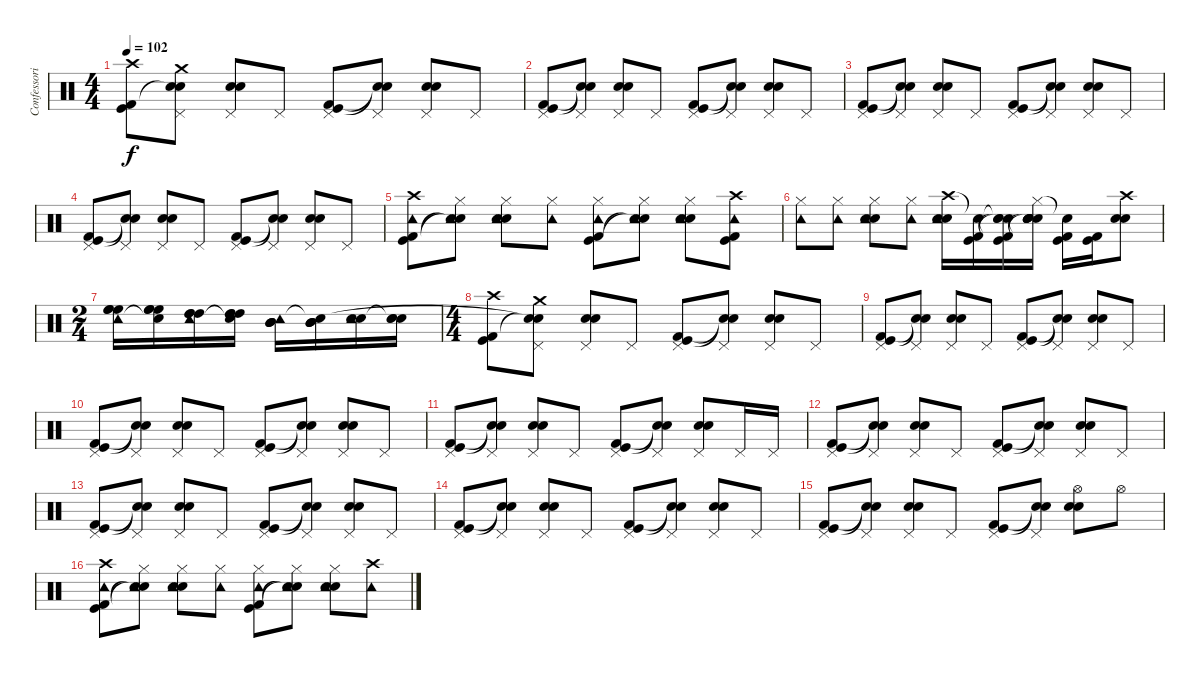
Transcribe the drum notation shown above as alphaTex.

\track ("Confessori" "Confessori") {instrument percussion}
\staff {score}
\articulation defaults
\ts (4 4)
\tempo 102
\clef neutral
\ks c
("Crash high (hit)" "Kick (hit)" "Kick (hit) 2").8{dy f} ("Pedal Hi-Hat (hit)" "Crash medium (hit)" "Snare (hit)"{t} "Snare (hit)").8 ("Pedal Hi-Hat (hit)" "Electric Snare (hit)" "Snare (hit) 2").8 "Pedal Hi-Hat (hit)".8 ("Pedal Hi-Hat (hit)" "Kick (hit)" "Kick (hit) 2").8 ("Pedal Hi-Hat (hit)" "Snare (hit)"{t} "Snare (hit)"{t}).8 ("Pedal Hi-Hat (hit)" "Electric Snare (hit)" "Snare (hit) 2").8 "Pedal Hi-Hat (hit)".8 |
("Pedal Hi-Hat (hit)" "Kick (hit)" "Kick (hit) 2").8 ("Pedal Hi-Hat (hit)" "Snare (hit)"{t} "Snare (hit)"{t}).8 ("Pedal Hi-Hat (hit)" "Electric Snare (hit)" "Snare (hit) 2").8 "Pedal Hi-Hat (hit)".8 ("Pedal Hi-Hat (hit)" "Kick (hit)" "Kick (hit) 2").8 ("Pedal Hi-Hat (hit)" "Snare (hit)"{t} "Snare (hit)"{t}).8 ("Pedal Hi-Hat (hit)" "Electric Snare (hit)" "Snare (hit) 2").8 "Pedal Hi-Hat (hit)".8 |
("Pedal Hi-Hat (hit)" "Kick (hit)" "Kick (hit) 2").8 ("Pedal Hi-Hat (hit)" "Snare (hit)"{t} "Snare (hit)"{t}).8 ("Pedal Hi-Hat (hit)" "Electric Snare (hit)" "Snare (hit) 2").8 "Pedal Hi-Hat (hit)".8 ("Pedal Hi-Hat (hit)" "Kick (hit)" "Kick (hit) 2").8 ("Pedal Hi-Hat (hit)" "Snare (hit)"{t} "Snare (hit)"{t}).8 ("Pedal Hi-Hat (hit)" "Electric Snare (hit)" "Snare (hit) 2").8 "Pedal Hi-Hat (hit)".8 |
("Pedal Hi-Hat (hit)" "Kick (hit)" "Kick (hit) 2").8 ("Pedal Hi-Hat (hit)" "Snare (hit)"{t} "Snare (hit)"{t}).8 ("Pedal Hi-Hat (hit)" "Electric Snare (hit)" "Snare (hit) 2").8 "Pedal Hi-Hat (hit)".8 ("Pedal Hi-Hat (hit)" "Kick (hit)" "Kick (hit) 2").8 ("Pedal Hi-Hat (hit)" "Snare (hit)"{t} "Snare (hit)"{t}).8 ("Pedal Hi-Hat (hit)" "Electric Snare (hit)" "Snare (hit) 2").8 "Pedal Hi-Hat (hit)".8 |
("Crash high (hit)" "Kick (hit)" "Kick (hit) 2" "Tambourine (hit)").8 ("Hi-Hat (closed)" "Snare (hit)"{t} "Snare (hit)"{t} "Tambourine (hit)").8 ("Hi-Hat (closed)" "Electric Snare (hit)" "Snare (hit) 2" "Tambourine (hit)").8 ("Hi-Hat (closed)" "Tambourine (hit)").8 ("Hi-Hat (closed)" "Kick (hit)" "Kick (hit) 2" "Tambourine (hit)").8 ("Hi-Hat (closed)" "Snare (hit)"{t} "Snare (hit)"{t} "Tambourine (hit)").8 ("Hi-Hat (closed)" "Electric Snare (hit)" "Snare (hit) 2" "Tambourine (hit)").8 ("Crash high (hit)" "Kick (hit)" "Kick (hit) 2" "Tambourine (hit)").8 |
("Hi-Hat (closed)" "Tambourine (hit)").8 ("Hi-Hat (closed)" "Tambourine (hit)").8 ("Hi-Hat (closed)" "Electric Snare (hit)" "Snare (hit) 2" "Tambourine (hit)").8 ("Hi-Hat (closed)" "Tambourine (hit)").8 ("Crash high (hit)" "Electric Snare (hit)" "Snare (hit) 2" "Tambourine (hit)").16 ("Snare (hit)"{t} "Kick (hit) 2" "Kick (hit)").16 ("Snare (hit)"{t} "Snare (hit)"{t} "Snare (hit)"{t} "Kick (hit) 2" "Kick (hit)").16 ("Hi-Hat (closed)" "Electric Snare (hit)" "Snare (hit) 2" "Snare (hit)"{t} "Snare (hit)"{t} "Snare (hit)").16 ("Snare (hit)"{t} "Kick (hit) 2" "Kick (hit)").16 ("Kick (hit) 2" "Kick (hit)").16 ("Crash high (hit)" "Electric Snare (hit)" "Snare (hit) 2").8 |
\ts (2 4)
("High Floor Tom (hit)" "High Floor Tom (hit)" "High Floor Tom (hit)" "Tambourine (hit)").16 ("High Floor Tom (hit)" "High Floor Tom (hit)" "High Floor Tom (hit)" "Snare (hit)"{t}).16 ("High Tom (hit)" "High Tom (hit)" "High Tom (hit)" "Tambourine (hit)").16 ("High Tom (hit)" "High Tom (hit)" "High Tom (hit)" "Snare (hit)"{t}).16 ("Mid Tom (hit)" "Mid Tom (hit)" "Mid Tom (hit)" "Tambourine (hit)").16 ("Mid Tom (hit)" "Mid Tom (hit)" "Mid Tom (hit)" "Snare (hit)"{t}).16 ("Electric Snare (hit)" "Snare (hit) 2" "Tambourine (hit)").16 ("Electric Snare (hit)" "Snare (hit) 2" "Snare (hit)"{t}).16 |
\ts (4 4)
("Crash high (hit)" "Kick (hit)" "Kick (hit) 2").8 ("Pedal Hi-Hat (hit)" "Crash medium (hit)" "Snare (hit)"{t} "Snare (hit)"{t}).8 ("Pedal Hi-Hat (hit)" "Electric Snare (hit)" "Snare (hit) 2").8 "Pedal Hi-Hat (hit)".8 ("Pedal Hi-Hat (hit)" "Kick (hit)" "Kick (hit) 2").8 ("Pedal Hi-Hat (hit)" "Snare (hit)"{t} "Snare (hit)"{t}).8 ("Pedal Hi-Hat (hit)" "Electric Snare (hit)" "Snare (hit) 2").8 "Pedal Hi-Hat (hit)".8 |
("Pedal Hi-Hat (hit)" "Kick (hit)" "Kick (hit) 2").8 ("Pedal Hi-Hat (hit)" "Snare (hit)"{t} "Snare (hit)"{t}).8 ("Pedal Hi-Hat (hit)" "Electric Snare (hit)" "Snare (hit) 2").8 "Pedal Hi-Hat (hit)".8 ("Pedal Hi-Hat (hit)" "Kick (hit)" "Kick (hit) 2").8 ("Pedal Hi-Hat (hit)" "Snare (hit)"{t} "Snare (hit)"{t}).8 ("Pedal Hi-Hat (hit)" "Electric Snare (hit)" "Snare (hit) 2").8 "Pedal Hi-Hat (hit)".8 |
("Pedal Hi-Hat (hit)" "Kick (hit)" "Kick (hit) 2").8 ("Pedal Hi-Hat (hit)" "Snare (hit)"{t} "Snare (hit)"{t}).8 ("Pedal Hi-Hat (hit)" "Electric Snare (hit)" "Snare (hit) 2").8 "Pedal Hi-Hat (hit)".8 ("Pedal Hi-Hat (hit)" "Kick (hit)" "Kick (hit) 2").8 ("Pedal Hi-Hat (hit)" "Snare (hit)"{t} "Snare (hit)"{t}).8 ("Pedal Hi-Hat (hit)" "Electric Snare (hit)" "Snare (hit) 2").8 "Pedal Hi-Hat (hit)".8 |
("Pedal Hi-Hat (hit)" "Kick (hit)" "Kick (hit) 2").8 ("Pedal Hi-Hat (hit)" "Snare (hit)"{t} "Snare (hit)"{t}).8 ("Pedal Hi-Hat (hit)" "Electric Snare (hit)" "Snare (hit) 2").8 "Pedal Hi-Hat (hit)".8 ("Pedal Hi-Hat (hit)" "Kick (hit)" "Kick (hit) 2").8 ("Pedal Hi-Hat (hit)" "Snare (hit)"{t} "Snare (hit)"{t}).8 ("Pedal Hi-Hat (hit)" "Electric Snare (hit)" "Snare (hit) 2").8 "Pedal Hi-Hat (hit)".16 "Pedal Hi-Hat (hit)".16 |
("Pedal Hi-Hat (hit)" "Kick (hit)" "Kick (hit) 2").8 ("Pedal Hi-Hat (hit)" "Snare (hit)"{t} "Snare (hit)"{t}).8 ("Pedal Hi-Hat (hit)" "Electric Snare (hit)" "Snare (hit) 2").8 "Pedal Hi-Hat (hit)".8 ("Pedal Hi-Hat (hit)" "Kick (hit)" "Kick (hit) 2").8 ("Pedal Hi-Hat (hit)" "Snare (hit)"{t} "Snare (hit)"{t}).8 ("Pedal Hi-Hat (hit)" "Electric Snare (hit)" "Snare (hit) 2").8 "Pedal Hi-Hat (hit)".8 |
("Pedal Hi-Hat (hit)" "Kick (hit)" "Kick (hit) 2").8 ("Pedal Hi-Hat (hit)" "Snare (hit)"{t} "Snare (hit)"{t}).8 ("Pedal Hi-Hat (hit)" "Electric Snare (hit)" "Snare (hit) 2").8 "Pedal Hi-Hat (hit)".8 ("Pedal Hi-Hat (hit)" "Kick (hit)" "Kick (hit) 2").8 ("Pedal Hi-Hat (hit)" "Snare (hit)"{t} "Snare (hit)"{t}).8 ("Pedal Hi-Hat (hit)" "Electric Snare (hit)" "Snare (hit) 2").8 "Pedal Hi-Hat (hit)".8 |
("Pedal Hi-Hat (hit)" "Kick (hit)" "Kick (hit) 2").8 ("Pedal Hi-Hat (hit)" "Snare (hit)"{t} "Snare (hit)"{t}).8 ("Pedal Hi-Hat (hit)" "Electric Snare (hit)" "Snare (hit) 2").8 "Pedal Hi-Hat (hit)".8 ("Pedal Hi-Hat (hit)" "Kick (hit)" "Kick (hit) 2").8 ("Pedal Hi-Hat (hit)" "Snare (hit)"{t} "Snare (hit)"{t}).8 ("Pedal Hi-Hat (hit)" "Electric Snare (hit)" "Snare (hit) 2").8 "Pedal Hi-Hat (hit)".8 |
("Pedal Hi-Hat (hit)" "Kick (hit)" "Kick (hit) 2").8 ("Pedal Hi-Hat (hit)" "Snare (hit)"{t} "Snare (hit)"{t}).8 ("Pedal Hi-Hat (hit)" "Electric Snare (hit)" "Snare (hit) 2").8 "Pedal Hi-Hat (hit)".8 ("Pedal Hi-Hat (hit)" "Kick (hit)" "Kick (hit) 2").8 ("Pedal Hi-Hat (hit)" "Snare (hit)"{t} "Snare (hit)"{t}).8 ("Hi-Hat (open)" "Electric Snare (hit)" "Snare (hit) 2").8 "Hi-Hat (open)".8 |
("Crash high (hit)" "Kick (hit)" "Kick (hit) 2" "Tambourine (hit)").8 ("Hi-Hat (closed)" "Snare (hit)"{t} "Snare (hit)"{t} "Tambourine (hit)").8 ("Hi-Hat (closed)" "Electric Snare (hit)" "Snare (hit) 2" "Tambourine (hit)").8 ("Hi-Hat (closed)" "Tambourine (hit)").8 ("Hi-Hat (closed)" "Kick (hit)" "Kick (hit) 2" "Tambourine (hit)").8 ("Hi-Hat (closed)" "Snare (hit)"{t} "Snare (hit)"{t} "Tambourine (hit)").8 ("Hi-Hat (closed)" "Electric Snare (hit)" "Snare (hit) 2" "Tambourine (hit)").8 ("Crash high (hit)" "Tambourine (hit)").8
